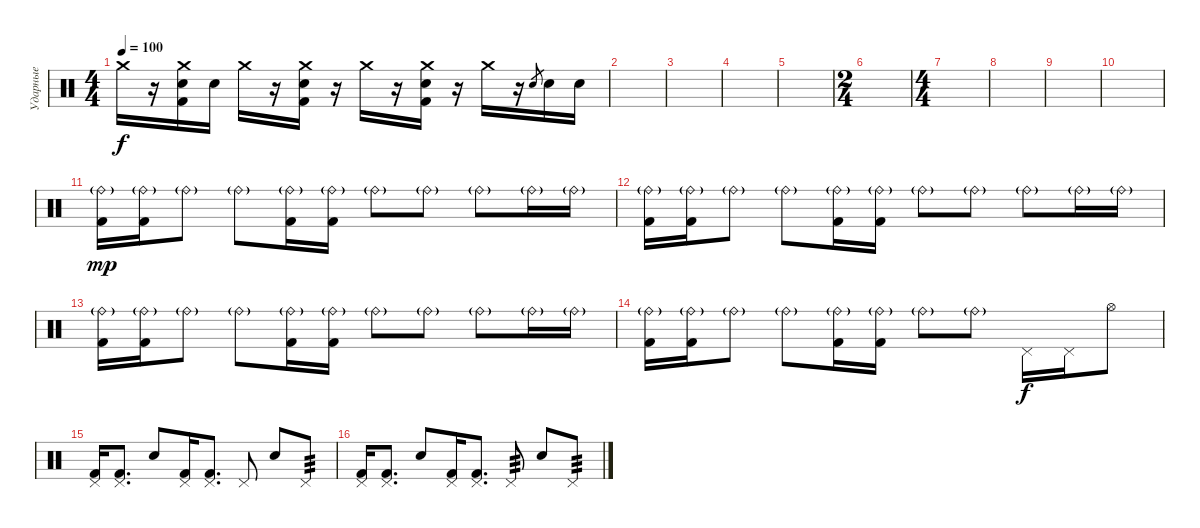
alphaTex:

\track ("Ударные" "Ударные") {instrument percussion}
\staff {score}
\articulation defaults
\ts (4 4)
\tempo 100
\clef neutral
\ks c "Crash medium (hit)".16{dy f}
r.16 ("Crash medium (hit)" "Kick (hit) 2" "Electric Snare (hit)").16 "Electric Snare (hit)".16 "Crash medium (hit)".16 r.16 ("Crash medium (hit)" "Kick (hit) 2" "Electric Snare (hit)").16 r.16 "Crash medium (hit)".16 r.16 ("Crash medium (hit)" "Kick (hit) 2" "Electric Snare (hit)").16 r.16 "Crash medium (hit)".16 r.16 "Electric Snare (hit)".8{gr} "Electric Snare (hit)".16 "Electric Snare (hit)".16 |
|
|
|
|
\ts (2 4)
|
\ts (4 4)
|
|
|
|
("Kick (hit) 2" "Ride (bell)"{g}).16{dy mp} ("Kick (hit) 2" "Ride (bell)"{g}).16 "Ride (bell)"{g}.8 "Ride (bell)"{g}.8 ("Ride (bell)"{g} "Kick (hit) 2").16 ("Ride (bell)"{g} "Kick (hit) 2").16 "Ride (bell)"{g}.8 "Ride (bell)"{g}.8 "Ride (bell)"{g}.8 "Ride (bell)"{g}.16 "Ride (bell)"{g}.16 |
("Kick (hit) 2" "Ride (bell)"{g}).16 ("Kick (hit) 2" "Ride (bell)"{g}).16 "Ride (bell)"{g}.8 "Ride (bell)"{g}.8 ("Ride (bell)"{g} "Kick (hit) 2").16 ("Ride (bell)"{g} "Kick (hit) 2").16 "Ride (bell)"{g}.8 "Ride (bell)"{g}.8 "Ride (bell)"{g}.8 "Ride (bell)"{g}.16 "Ride (bell)"{g}.16 |
("Kick (hit) 2" "Ride (bell)"{g}).16 ("Kick (hit) 2" "Ride (bell)"{g}).16 "Ride (bell)"{g}.8 "Ride (bell)"{g}.8 ("Ride (bell)"{g} "Kick (hit) 2").16 ("Ride (bell)"{g} "Kick (hit) 2").16 "Ride (bell)"{g}.8 "Ride (bell)"{g}.8 "Ride (bell)"{g}.8 "Ride (bell)"{g}.16 "Ride (bell)"{g}.16 |
("Kick (hit) 2" "Ride (bell)"{g}).16 ("Kick (hit) 2" "Ride (bell)"{g}).16 "Ride (bell)"{g}.8 "Ride (bell)"{g}.8 ("Ride (bell)"{g} "Kick (hit) 2").16 ("Ride (bell)"{g} "Kick (hit) 2").16 "Ride (bell)"{g}.8 "Ride (bell)"{g}.8 "Pedal Hi-Hat (hit)".16{dy f} "Pedal Hi-Hat (hit)".16 "Hi-Hat (open)".8 |
("Kick (hit) 2" "Pedal Hi-Hat (hit)").16 ("Kick (hit) 2" "Pedal Hi-Hat (hit)").8{d} "Electric Snare (hit)".8 ("Kick (hit) 2" "Pedal Hi-Hat (hit)").16 ("Kick (hit) 2" "Pedal Hi-Hat (hit)").8{d} "Pedal Hi-Hat (hit)".8 "Electric Snare (hit)".8 "Pedal Hi-Hat (hit)".8{tp 3} |
("Kick (hit) 2" "Pedal Hi-Hat (hit)").16 ("Kick (hit) 2" "Pedal Hi-Hat (hit)").8{d} "Electric Snare (hit)".8 ("Kick (hit) 2" "Pedal Hi-Hat (hit)").16 ("Kick (hit) 2" "Pedal Hi-Hat (hit)").8{d} "Pedal Hi-Hat (hit)".8{tp 3} "Electric Snare (hit)".8 "Pedal Hi-Hat (hit)".8{tp 3}
